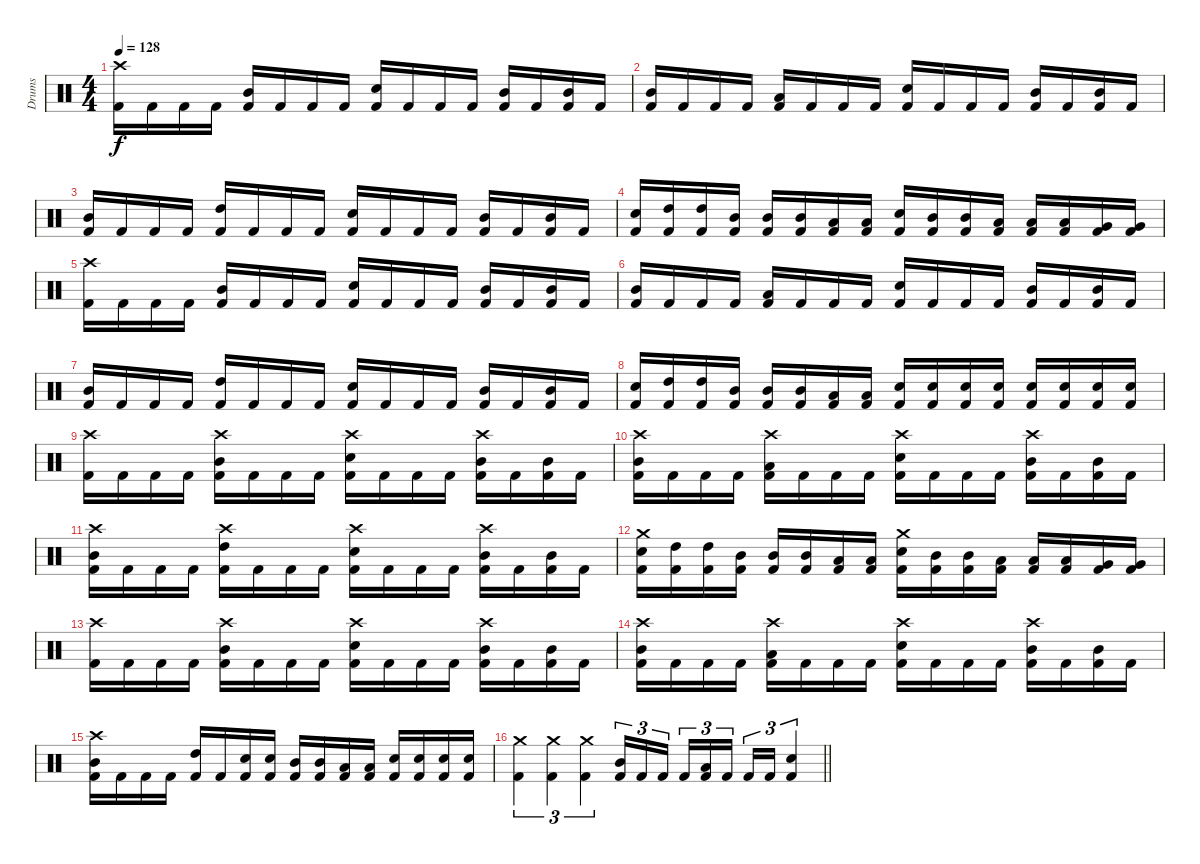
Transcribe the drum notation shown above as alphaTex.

\track ("Drums" "Drums") {instrument percussion}
\staff {score}
\articulation defaults
\ts (4 4)
\section ("" "")
\tempo 128
\clef neutral
\ks c
("Crash high (hit)" "Kick (hit) 2").16{dy f} "Kick (hit) 2".16 "Kick (hit) 2".16 "Kick (hit) 2".16 ("Mid Tom (hit)" "Kick (hit) 2").16 "Kick (hit) 2".16 "Kick (hit) 2".16 "Kick (hit) 2".16 ("Electric Snare (hit)" "Kick (hit) 2").16 "Kick (hit) 2".16 "Kick (hit) 2".16 "Kick (hit) 2".16 ("Mid Tom (hit)" "Kick (hit) 2").16 "Kick (hit) 2".16 ("Mid Tom (hit)" "Kick (hit) 2").16 "Kick (hit) 2".16 |
("Mid Tom (hit)" "Kick (hit) 2").16 "Kick (hit) 2".16 "Kick (hit) 2".16 "Kick (hit) 2".16 ("Low Tom (hit)" "Kick (hit) 2").16 "Kick (hit) 2".16 "Kick (hit) 2".16 "Kick (hit) 2".16 ("Electric Snare (hit)" "Kick (hit) 2").16 "Kick (hit) 2".16 "Kick (hit) 2".16 "Kick (hit) 2".16 ("Mid Tom (hit)" "Kick (hit) 2").16 "Kick (hit) 2".16 ("Mid Tom (hit)" "Kick (hit) 2").16 "Kick (hit) 2".16 |
("Mid Tom (hit)" "Kick (hit) 2").16 "Kick (hit) 2".16 "Kick (hit) 2".16 "Kick (hit) 2".16 ("High Tom (hit)" "Kick (hit) 2").16 "Kick (hit) 2".16 "Kick (hit) 2".16 "Kick (hit) 2".16 ("Electric Snare (hit)" "Kick (hit) 2").16 "Kick (hit) 2".16 "Kick (hit) 2".16 "Kick (hit) 2".16 ("Mid Tom (hit)" "Kick (hit) 2").16 "Kick (hit) 2".16 ("Mid Tom (hit)" "Kick (hit) 2").16 "Kick (hit) 2".16 |
("Electric Snare (hit)" "Kick (hit) 2").16 ("High Tom (hit)" "Kick (hit) 2").16 ("High Tom (hit)" "Kick (hit) 2").16 ("Mid Tom (hit)" "Kick (hit) 2").16 ("Mid Tom (hit)" "Kick (hit) 2").16 ("Mid Tom (hit)" "Kick (hit) 2").16 ("Low Tom (hit)" "Kick (hit) 2").16 ("Low Tom (hit)" "Kick (hit) 2").16 ("Electric Snare (hit)" "Kick (hit) 2").16 ("Mid Tom (hit)" "Kick (hit) 2").16 ("Mid Tom (hit)" "Kick (hit) 2").16 ("Low Tom (hit)" "Kick (hit) 2").16 ("Low Tom (hit)" "Kick (hit) 2").16 ("Low Tom (hit)" "Kick (hit) 2").16 ("Very Low Tom (hit)" "Kick (hit) 2").16 ("Very Low Tom (hit)" "Kick (hit) 2").16 |
("Crash high (hit)" "Kick (hit) 2").16 "Kick (hit) 2".16 "Kick (hit) 2".16 "Kick (hit) 2".16 ("Mid Tom (hit)" "Kick (hit) 2").16 "Kick (hit) 2".16 "Kick (hit) 2".16 "Kick (hit) 2".16 ("Electric Snare (hit)" "Kick (hit) 2").16 "Kick (hit) 2".16 "Kick (hit) 2".16 "Kick (hit) 2".16 ("Mid Tom (hit)" "Kick (hit) 2").16 "Kick (hit) 2".16 ("Mid Tom (hit)" "Kick (hit) 2").16 "Kick (hit) 2".16 |
("Mid Tom (hit)" "Kick (hit) 2").16 "Kick (hit) 2".16 "Kick (hit) 2".16 "Kick (hit) 2".16 ("Low Tom (hit)" "Kick (hit) 2").16 "Kick (hit) 2".16 "Kick (hit) 2".16 "Kick (hit) 2".16 ("Electric Snare (hit)" "Kick (hit) 2").16 "Kick (hit) 2".16 "Kick (hit) 2".16 "Kick (hit) 2".16 ("Mid Tom (hit)" "Kick (hit) 2").16 "Kick (hit) 2".16 ("Mid Tom (hit)" "Kick (hit) 2").16 "Kick (hit) 2".16 |
("Mid Tom (hit)" "Kick (hit) 2").16 "Kick (hit) 2".16 "Kick (hit) 2".16 "Kick (hit) 2".16 ("High Tom (hit)" "Kick (hit) 2").16 "Kick (hit) 2".16 "Kick (hit) 2".16 "Kick (hit) 2".16 ("Electric Snare (hit)" "Kick (hit) 2").16 "Kick (hit) 2".16 "Kick (hit) 2".16 "Kick (hit) 2".16 ("Mid Tom (hit)" "Kick (hit) 2").16 "Kick (hit) 2".16 ("Mid Tom (hit)" "Kick (hit) 2").16 "Kick (hit) 2".16 |
("Electric Snare (hit)" "Kick (hit) 2").16 ("High Tom (hit)" "Kick (hit) 2").16 ("High Tom (hit)" "Kick (hit) 2").16 ("Mid Tom (hit)" "Kick (hit) 2").16 ("Mid Tom (hit)" "Kick (hit) 2").16 ("Mid Tom (hit)" "Kick (hit) 2").16 ("Low Tom (hit)" "Kick (hit) 2").16 ("Low Tom (hit)" "Kick (hit) 2").16 ("Electric Snare (hit)" "Kick (hit) 2").16 ("Electric Snare (hit)" "Kick (hit) 2").16 ("Electric Snare (hit)" "Kick (hit) 2").16 ("Electric Snare (hit)" "Kick (hit) 2").16 ("Electric Snare (hit)" "Kick (hit) 2").16 ("Electric Snare (hit)" "Kick (hit) 2").16 ("Electric Snare (hit)" "Kick (hit) 2").16 ("Electric Snare (hit)" "Kick (hit) 2").16 |
("Crash high (hit)" "Kick (hit) 2").16 "Kick (hit) 2".16 "Kick (hit) 2".16 "Kick (hit) 2".16 ("Crash high (hit)" "Mid Tom (hit)" "Kick (hit) 2").16 "Kick (hit) 2".16 "Kick (hit) 2".16 "Kick (hit) 2".16 ("Crash high (hit)" "Electric Snare (hit)" "Kick (hit) 2").16 "Kick (hit) 2".16 "Kick (hit) 2".16 "Kick (hit) 2".16 ("Crash high (hit)" "Mid Tom (hit)" "Kick (hit) 2").16 "Kick (hit) 2".16 ("Mid Tom (hit)" "Kick (hit) 2").16 "Kick (hit) 2".16 |
("Crash high (hit)" "Mid Tom (hit)" "Kick (hit) 2").16 "Kick (hit) 2".16 "Kick (hit) 2".16 "Kick (hit) 2".16 ("Crash high (hit)" "Low Tom (hit)" "Kick (hit) 2").16 "Kick (hit) 2".16 "Kick (hit) 2".16 "Kick (hit) 2".16 ("Crash high (hit)" "Electric Snare (hit)" "Kick (hit) 2").16 "Kick (hit) 2".16 "Kick (hit) 2".16 "Kick (hit) 2".16 ("Crash high (hit)" "Mid Tom (hit)" "Kick (hit) 2").16 "Kick (hit) 2".16 ("Mid Tom (hit)" "Kick (hit) 2").16 "Kick (hit) 2".16 |
("Crash high (hit)" "Mid Tom (hit)" "Kick (hit) 2").16 "Kick (hit) 2".16 "Kick (hit) 2".16 "Kick (hit) 2".16 ("Crash high (hit)" "High Tom (hit)" "Kick (hit) 2").16 "Kick (hit) 2".16 "Kick (hit) 2".16 "Kick (hit) 2".16 ("Crash high (hit)" "Electric Snare (hit)" "Kick (hit) 2").16 "Kick (hit) 2".16 "Kick (hit) 2".16 "Kick (hit) 2".16 ("Crash high (hit)" "Mid Tom (hit)" "Kick (hit) 2").16 "Kick (hit) 2".16 ("Mid Tom (hit)" "Kick (hit) 2").16 "Kick (hit) 2".16 |
("Crash medium (hit)" "Electric Snare (hit)" "Kick (hit) 2").16 ("High Tom (hit)" "Kick (hit) 2").16 ("High Tom (hit)" "Kick (hit) 2").16 ("Mid Tom (hit)" "Kick (hit) 2").16 ("Mid Tom (hit)" "Kick (hit) 2").16 ("Mid Tom (hit)" "Kick (hit) 2").16 ("Low Tom (hit)" "Kick (hit) 2").16 ("Low Tom (hit)" "Kick (hit) 2").16 ("Crash medium (hit)" "Electric Snare (hit)" "Kick (hit) 2").16 ("Mid Tom (hit)" "Kick (hit) 2").16 ("Mid Tom (hit)" "Kick (hit) 2").16 ("Low Tom (hit)" "Kick (hit) 2").16 ("Low Tom (hit)" "Kick (hit) 2").16 ("Low Tom (hit)" "Kick (hit) 2").16 ("Very Low Tom (hit)" "Kick (hit) 2").16 ("Very Low Tom (hit)" "Kick (hit) 2").16 |
("Crash high (hit)" "Kick (hit) 2").16 "Kick (hit) 2".16 "Kick (hit) 2".16 "Kick (hit) 2".16 ("Crash high (hit)" "Mid Tom (hit)" "Kick (hit) 2").16 "Kick (hit) 2".16 "Kick (hit) 2".16 "Kick (hit) 2".16 ("Crash high (hit)" "Electric Snare (hit)" "Kick (hit) 2").16 "Kick (hit) 2".16 "Kick (hit) 2".16 "Kick (hit) 2".16 ("Crash high (hit)" "Mid Tom (hit)" "Kick (hit) 2").16 "Kick (hit) 2".16 ("Mid Tom (hit)" "Kick (hit) 2").16 "Kick (hit) 2".16 |
("Crash high (hit)" "Mid Tom (hit)" "Kick (hit) 2").16 "Kick (hit) 2".16 "Kick (hit) 2".16 "Kick (hit) 2".16 ("Crash high (hit)" "Low Tom (hit)" "Kick (hit) 2").16 "Kick (hit) 2".16 "Kick (hit) 2".16 "Kick (hit) 2".16 ("Crash high (hit)" "Electric Snare (hit)" "Kick (hit) 2").16 "Kick (hit) 2".16 "Kick (hit) 2".16 "Kick (hit) 2".16 ("Crash high (hit)" "Mid Tom (hit)" "Kick (hit) 2").16 "Kick (hit) 2".16 ("Mid Tom (hit)" "Kick (hit) 2").16 "Kick (hit) 2".16 |
("Crash high (hit)" "Mid Tom (hit)" "Kick (hit) 2").16 "Kick (hit) 2".16 "Kick (hit) 2".16 "Kick (hit) 2".16 ("High Tom (hit)" "Kick (hit) 2").16 "Kick (hit) 2".16 ("Electric Snare (hit)" "Kick (hit) 2").16 ("Electric Snare (hit)" "Kick (hit) 2").16 ("Mid Tom (hit)" "Kick (hit) 2").16 ("Mid Tom (hit)" "Kick (hit) 2").16 ("Low Tom (hit)" "Kick (hit) 2").16 ("Low Tom (hit)" "Kick (hit) 2").16 ("Electric Snare (hit)" "Kick (hit) 2").16 ("Electric Snare (hit)" "Kick (hit) 2").16 ("Electric Snare (hit)" "Kick (hit) 2").16 ("Electric Snare (hit)" "Kick (hit) 2").16 |
\barLineRight lightlight
("Crash medium (hit)" "Kick (hit) 2").4{tu (3 2)} ("Crash medium (hit)" "Kick (hit) 2").4{tu (3 2)} ("Crash medium (hit)" "Kick (hit) 2").4{tu (3 2)} ("Mid Tom (hit)" "Kick (hit) 2").16{tu (3 2)} "Kick (hit) 2".16{tu (3 2)} "Kick (hit) 2".16{tu (3 2) beam splitsecondary} "Kick (hit) 2".16{tu (3 2)} ("Low Tom (hit)" "Kick (hit) 2").16{tu (3 2)} "Kick (hit) 2".16{tu (3 2)} "Kick (hit) 2".16{tu (3 2)} "Kick (hit) 2".16{tu (3 2)} ("Electric Snare (hit)" "Kick (hit) 2").4{tu (3 2)}
